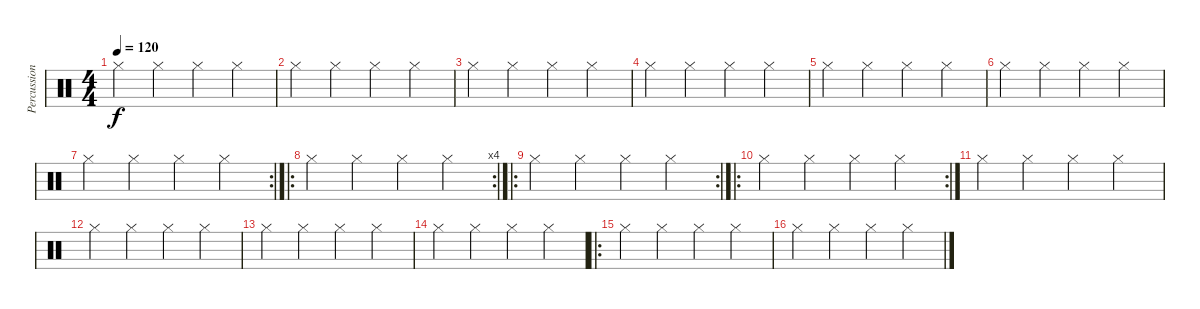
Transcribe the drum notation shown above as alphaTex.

\track ("Percussioni" "Percussion") {instrument percussion}
\staff {score}
\articulation defaults
\ts (4 4)
\tempo 120
\clef neutral
\ks c "Hi-Hat (closed)".4{dy f} "Hi-Hat (closed)".4 "Hi-Hat (closed)".4 "Hi-Hat (closed)".4
|
"Hi-Hat (closed)".4 "Hi-Hat (closed)".4 "Hi-Hat (closed)".4 "Hi-Hat (closed)".4 |
"Hi-Hat (closed)".4 "Hi-Hat (closed)".4 "Hi-Hat (closed)".4 "Hi-Hat (closed)".4 |
"Hi-Hat (closed)".4 "Hi-Hat (closed)".4 "Hi-Hat (closed)".4 "Hi-Hat (closed)".4 |
"Hi-Hat (closed)".4 "Hi-Hat (closed)".4 "Hi-Hat (closed)".4 "Hi-Hat (closed)".4 |
"Hi-Hat (closed)".4 "Hi-Hat (closed)".4 "Hi-Hat (closed)".4 "Hi-Hat (closed)".4 |
\rc 2 "Hi-Hat (closed)".4 "Hi-Hat (closed)".4 "Hi-Hat (closed)".4 "Hi-Hat (closed)".4
|
\ro
\rc 4 "Hi-Hat (closed)".4 "Hi-Hat (closed)".4 "Hi-Hat (closed)".4 "Hi-Hat (closed)".4
|
\ro
\rc 2 "Hi-Hat (closed)".4 "Hi-Hat (closed)".4 "Hi-Hat (closed)".4 "Hi-Hat (closed)".4
|
\ro
\rc 2 "Hi-Hat (closed)".4 "Hi-Hat (closed)".4 "Hi-Hat (closed)".4 "Hi-Hat (closed)".4
|
"Hi-Hat (closed)".4 "Hi-Hat (closed)".4 "Hi-Hat (closed)".4 "Hi-Hat (closed)".4 |
"Hi-Hat (closed)".4 "Hi-Hat (closed)".4 "Hi-Hat (closed)".4 "Hi-Hat (closed)".4 |
"Hi-Hat (closed)".4 "Hi-Hat (closed)".4 "Hi-Hat (closed)".4 "Hi-Hat (closed)".4 |
"Hi-Hat (closed)".4 "Hi-Hat (closed)".4 "Hi-Hat (closed)".4 "Hi-Hat (closed)".4 |
\ro "Hi-Hat (closed)".4 "Hi-Hat (closed)".4 "Hi-Hat (closed)".4 "Hi-Hat (closed)".4
|
"Hi-Hat (closed)".4 "Hi-Hat (closed)".4 "Hi-Hat (closed)".4 "Hi-Hat (closed)".4
